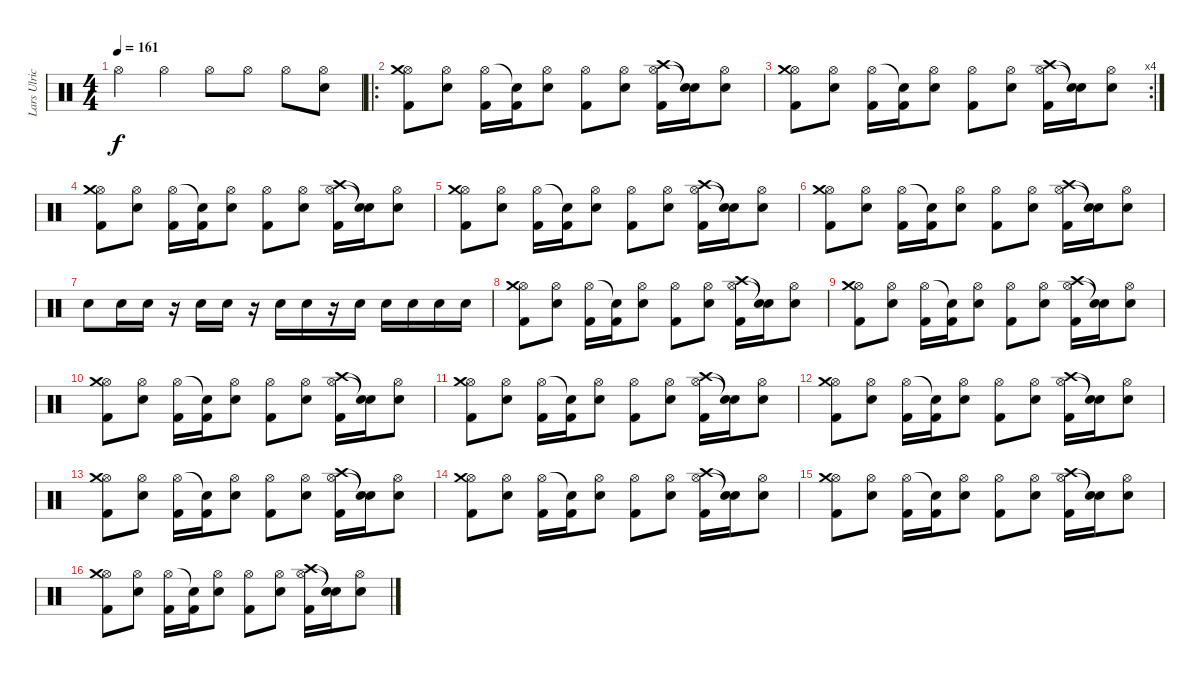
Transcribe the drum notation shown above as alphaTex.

\track ("Lars Ulrich" "Lars Ulric") {instrument percussion}
\staff {score}
\articulation defaults
\ts (4 4)
\tempo 161
\clef neutral
\ks c "Hi-Hat (open)".4{dy f} "Hi-Hat (open)".4 "Hi-Hat (open)".8 "Hi-Hat (open)".8 "Hi-Hat (open)".8
("Hi-Hat (open)" "Electric Snare (hit)").8 |
\ro
("Hi-Hat (open)" "Crash medium (hit)" "Kick (hit) 2").8 ("Hi-Hat (open)" "Electric Snare (hit)").8 ("Hi-Hat (open)" "Kick (hit) 2").16 ("Snare (hit)"{t} "Kick (hit) 2").16 ("Hi-Hat (open)" "Electric Snare (hit)").8 ("Hi-Hat (open)" "Kick (hit) 2").8 ("Hi-Hat (open)" "Electric Snare (hit)").8 ("Hi-Hat (open)" "Crash high (hit)" "Kick (hit) 2").16 ("Snare (hit)"{t} "Snare (hit)"{t}).16 ("Hi-Hat (open)" "Electric Snare (hit)").8 |
\rc 4
("Hi-Hat (open)" "Crash medium (hit)" "Kick (hit) 2").8 ("Hi-Hat (open)" "Electric Snare (hit)").8 ("Hi-Hat (open)" "Kick (hit) 2").16 ("Snare (hit)"{t} "Kick (hit) 2").16 ("Hi-Hat (open)" "Electric Snare (hit)").8 ("Hi-Hat (open)" "Kick (hit) 2").8 ("Hi-Hat (open)" "Electric Snare (hit)").8 ("Hi-Hat (open)" "Crash high (hit)" "Kick (hit) 2").16 ("Snare (hit)"{t} "Snare (hit)"{t}).16 ("Hi-Hat (open)" "Electric Snare (hit)").8 |
("Hi-Hat (open)" "Crash medium (hit)" "Kick (hit) 2").8 ("Hi-Hat (open)" "Electric Snare (hit)").8 ("Hi-Hat (open)" "Kick (hit) 2").16 ("Snare (hit)"{t} "Kick (hit) 2").16 ("Hi-Hat (open)" "Electric Snare (hit)").8 ("Hi-Hat (open)" "Kick (hit) 2").8 ("Hi-Hat (open)" "Electric Snare (hit)").8 ("Hi-Hat (open)" "Crash high (hit)" "Kick (hit) 2").16 ("Snare (hit)"{t} "Snare (hit)"{t}).16 ("Hi-Hat (open)" "Electric Snare (hit)").8 |
("Hi-Hat (open)" "Crash medium (hit)" "Kick (hit) 2").8 ("Hi-Hat (open)" "Electric Snare (hit)").8 ("Hi-Hat (open)" "Kick (hit) 2").16 ("Snare (hit)"{t} "Kick (hit) 2").16 ("Hi-Hat (open)" "Electric Snare (hit)").8 ("Hi-Hat (open)" "Kick (hit) 2").8 ("Hi-Hat (open)" "Electric Snare (hit)").8 ("Hi-Hat (open)" "Crash high (hit)" "Kick (hit) 2").16 ("Snare (hit)"{t} "Snare (hit)"{t}).16 ("Hi-Hat (open)" "Electric Snare (hit)").8 |
("Hi-Hat (open)" "Crash medium (hit)" "Kick (hit) 2").8 ("Hi-Hat (open)" "Electric Snare (hit)").8 ("Hi-Hat (open)" "Kick (hit) 2").16 ("Snare (hit)"{t} "Kick (hit) 2").16 ("Hi-Hat (open)" "Electric Snare (hit)").8 ("Hi-Hat (open)" "Kick (hit) 2").8 ("Hi-Hat (open)" "Electric Snare (hit)").8 ("Hi-Hat (open)" "Crash high (hit)" "Kick (hit) 2").16 ("Snare (hit)"{t} "Snare (hit)"{t}).16 ("Hi-Hat (open)" "Electric Snare (hit)").8 |
"Electric Snare (hit)".8 "Electric Snare (hit)".16 "Electric Snare (hit)".16 r.16 "Electric Snare (hit)".16 "Electric Snare (hit)".16 r.16 "Electric Snare (hit)".16 "Electric Snare (hit)".16 r.16 "Electric Snare (hit)".16 "Electric Snare (hit)".16 "Electric Snare (hit)".16 "Electric Snare (hit)".16 "Electric Snare (hit)".16 |
("Hi-Hat (open)" "Crash medium (hit)" "Kick (hit) 2").8 ("Hi-Hat (open)" "Electric Snare (hit)").8 ("Hi-Hat (open)" "Kick (hit) 2").16 ("Snare (hit)"{t} "Kick (hit) 2").16 ("Hi-Hat (open)" "Electric Snare (hit)").8 ("Hi-Hat (open)" "Kick (hit) 2").8 ("Hi-Hat (open)" "Electric Snare (hit)").8 ("Hi-Hat (open)" "Crash high (hit)" "Kick (hit) 2").16 ("Snare (hit)"{t} "Snare (hit)"{t}).16 ("Hi-Hat (open)" "Electric Snare (hit)").8 |
("Hi-Hat (open)" "Crash medium (hit)" "Kick (hit) 2").8 ("Hi-Hat (open)" "Electric Snare (hit)").8 ("Hi-Hat (open)" "Kick (hit) 2").16 ("Snare (hit)"{t} "Kick (hit) 2").16 ("Hi-Hat (open)" "Electric Snare (hit)").8 ("Hi-Hat (open)" "Kick (hit) 2").8 ("Hi-Hat (open)" "Electric Snare (hit)").8 ("Hi-Hat (open)" "Crash high (hit)" "Kick (hit) 2").16 ("Snare (hit)"{t} "Snare (hit)"{t}).16 ("Hi-Hat (open)" "Electric Snare (hit)").8 |
("Hi-Hat (open)" "Crash medium (hit)" "Kick (hit) 2").8 ("Hi-Hat (open)" "Electric Snare (hit)").8 ("Hi-Hat (open)" "Kick (hit) 2").16 ("Snare (hit)"{t} "Kick (hit) 2").16 ("Hi-Hat (open)" "Electric Snare (hit)").8 ("Hi-Hat (open)" "Kick (hit) 2").8 ("Hi-Hat (open)" "Electric Snare (hit)").8 ("Hi-Hat (open)" "Crash high (hit)" "Kick (hit) 2").16 ("Snare (hit)"{t} "Snare (hit)"{t}).16 ("Hi-Hat (open)" "Electric Snare (hit)").8 |
("Hi-Hat (open)" "Crash medium (hit)" "Kick (hit) 2").8 ("Hi-Hat (open)" "Electric Snare (hit)").8 ("Hi-Hat (open)" "Kick (hit) 2").16 ("Snare (hit)"{t} "Kick (hit) 2").16 ("Hi-Hat (open)" "Electric Snare (hit)").8 ("Hi-Hat (open)" "Kick (hit) 2").8 ("Hi-Hat (open)" "Electric Snare (hit)").8 ("Hi-Hat (open)" "Crash high (hit)" "Kick (hit) 2").16 ("Snare (hit)"{t} "Snare (hit)"{t}).16 ("Hi-Hat (open)" "Electric Snare (hit)").8 |
("Hi-Hat (open)" "Crash medium (hit)" "Kick (hit) 2").8 ("Hi-Hat (open)" "Electric Snare (hit)").8 ("Hi-Hat (open)" "Kick (hit) 2").16 ("Snare (hit)"{t} "Kick (hit) 2").16 ("Hi-Hat (open)" "Electric Snare (hit)").8 ("Hi-Hat (open)" "Kick (hit) 2").8 ("Hi-Hat (open)" "Electric Snare (hit)").8 ("Hi-Hat (open)" "Crash high (hit)" "Kick (hit) 2").16 ("Snare (hit)"{t} "Snare (hit)"{t}).16 ("Hi-Hat (open)" "Electric Snare (hit)").8 |
("Hi-Hat (open)" "Crash medium (hit)" "Kick (hit) 2").8 ("Hi-Hat (open)" "Electric Snare (hit)").8 ("Hi-Hat (open)" "Kick (hit) 2").16 ("Snare (hit)"{t} "Kick (hit) 2").16 ("Hi-Hat (open)" "Electric Snare (hit)").8 ("Hi-Hat (open)" "Kick (hit) 2").8 ("Hi-Hat (open)" "Electric Snare (hit)").8 ("Hi-Hat (open)" "Crash high (hit)" "Kick (hit) 2").16 ("Snare (hit)"{t} "Snare (hit)"{t}).16 ("Hi-Hat (open)" "Electric Snare (hit)").8 |
("Hi-Hat (open)" "Crash medium (hit)" "Kick (hit) 2").8 ("Hi-Hat (open)" "Electric Snare (hit)").8 ("Hi-Hat (open)" "Kick (hit) 2").16 ("Snare (hit)"{t} "Kick (hit) 2").16 ("Hi-Hat (open)" "Electric Snare (hit)").8 ("Hi-Hat (open)" "Kick (hit) 2").8 ("Hi-Hat (open)" "Electric Snare (hit)").8 ("Hi-Hat (open)" "Crash high (hit)" "Kick (hit) 2").16 ("Snare (hit)"{t} "Snare (hit)"{t}).16 ("Hi-Hat (open)" "Electric Snare (hit)").8 |
("Hi-Hat (open)" "Crash medium (hit)" "Kick (hit) 2").8 ("Hi-Hat (open)" "Electric Snare (hit)").8 ("Hi-Hat (open)" "Kick (hit) 2").16 ("Snare (hit)"{t} "Kick (hit) 2").16 ("Hi-Hat (open)" "Electric Snare (hit)").8 ("Hi-Hat (open)" "Kick (hit) 2").8 ("Hi-Hat (open)" "Electric Snare (hit)").8 ("Hi-Hat (open)" "Crash high (hit)" "Kick (hit) 2").16 ("Snare (hit)"{t} "Snare (hit)"{t}).16 ("Hi-Hat (open)" "Electric Snare (hit)").8 |
("Hi-Hat (open)" "Crash medium (hit)" "Kick (hit) 2").8 ("Hi-Hat (open)" "Electric Snare (hit)").8 ("Hi-Hat (open)" "Kick (hit) 2").16 ("Snare (hit)"{t} "Kick (hit) 2").16 ("Hi-Hat (open)" "Electric Snare (hit)").8 ("Hi-Hat (open)" "Kick (hit) 2").8 ("Hi-Hat (open)" "Electric Snare (hit)").8 ("Hi-Hat (open)" "Crash high (hit)" "Kick (hit) 2").16 ("Snare (hit)"{t} "Snare (hit)"{t}).16 ("Hi-Hat (open)" "Electric Snare (hit)").8
